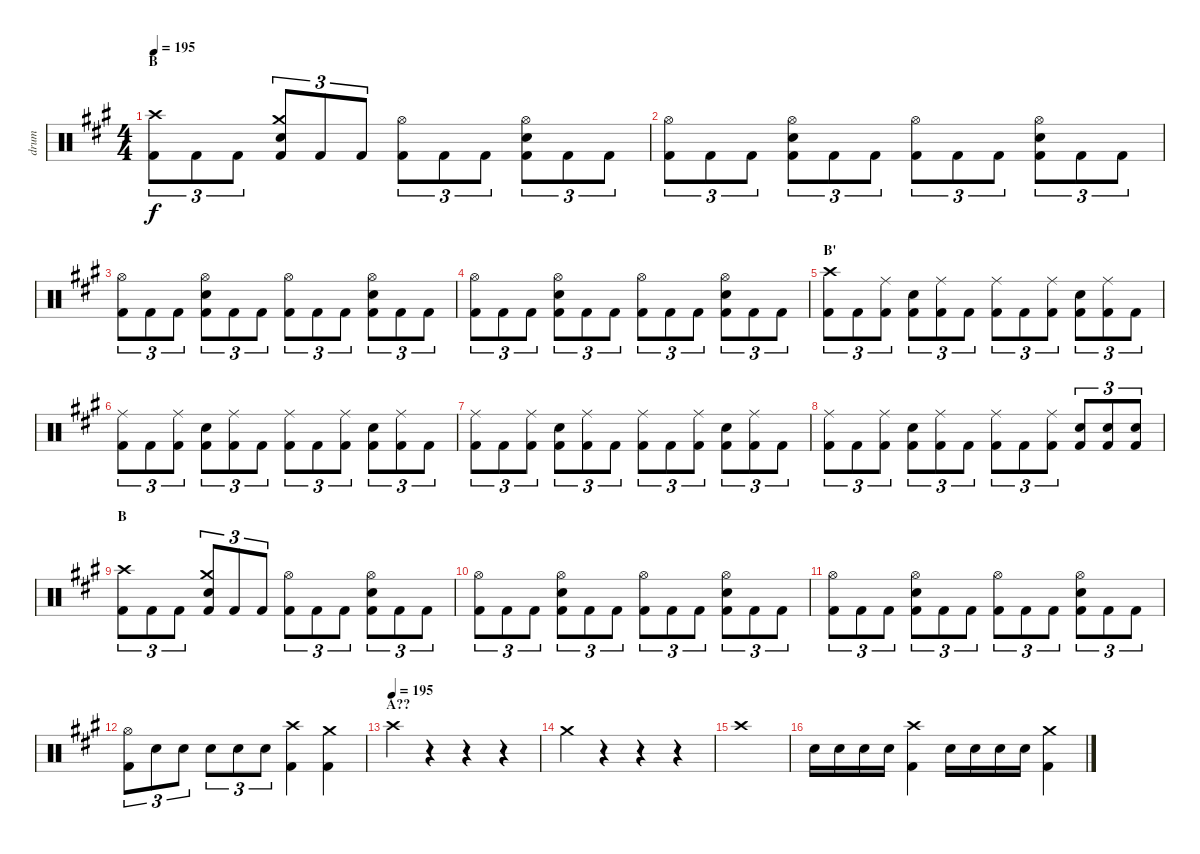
\track ("drum" "drum") {instrument percussion}
\staff {score}
\articulation defaults
\ts (4 4)
\section ("" "B")
\tempo 195
\clef neutral
\ks a
("Crash high (hit)" "Kick (hit) 2").8{tu (3 2) dy f} "Kick (hit) 2".8{tu (3 2)} "Kick (hit) 2".8{tu (3 2)} ("Crash medium (hit)" "Electric Snare (hit)" "Kick (hit) 2").8{tu (3 2)} "Kick (hit) 2".8{tu (3 2)} "Kick (hit) 2".8{tu (3 2)} ("Hi-Hat (open)" "Kick (hit) 2").8{tu (3 2)} "Kick (hit) 2".8{tu (3 2)} "Kick (hit) 2".8{tu (3 2)} ("Hi-Hat (open)" "Electric Snare (hit)" "Kick (hit) 2").8{tu (3 2)} "Kick (hit) 2".8{tu (3 2)} "Kick (hit) 2".8{tu (3 2)} |
("Hi-Hat (open)" "Kick (hit) 2").8{tu (3 2)} "Kick (hit) 2".8{tu (3 2)} "Kick (hit) 2".8{tu (3 2)} ("Hi-Hat (open)" "Electric Snare (hit)" "Kick (hit) 2").8{tu (3 2)} "Kick (hit) 2".8{tu (3 2)} "Kick (hit) 2".8{tu (3 2)} ("Hi-Hat (open)" "Kick (hit) 2").8{tu (3 2)} "Kick (hit) 2".8{tu (3 2)} "Kick (hit) 2".8{tu (3 2)} ("Hi-Hat (open)" "Electric Snare (hit)" "Kick (hit) 2").8{tu (3 2)} "Kick (hit) 2".8{tu (3 2)} "Kick (hit) 2".8{tu (3 2)} |
("Hi-Hat (open)" "Kick (hit) 2").8{tu (3 2)} "Kick (hit) 2".8{tu (3 2)} "Kick (hit) 2".8{tu (3 2)} ("Hi-Hat (open)" "Electric Snare (hit)" "Kick (hit) 2").8{tu (3 2)} "Kick (hit) 2".8{tu (3 2)} "Kick (hit) 2".8{tu (3 2)} ("Hi-Hat (open)" "Kick (hit) 2").8{tu (3 2)} "Kick (hit) 2".8{tu (3 2)} "Kick (hit) 2".8{tu (3 2)} ("Hi-Hat (open)" "Electric Snare (hit)" "Kick (hit) 2").8{tu (3 2)} "Kick (hit) 2".8{tu (3 2)} "Kick (hit) 2".8{tu (3 2)} |
("Hi-Hat (open)" "Kick (hit) 2").8{tu (3 2)} "Kick (hit) 2".8{tu (3 2)} "Kick (hit) 2".8{tu (3 2)} ("Hi-Hat (open)" "Electric Snare (hit)" "Kick (hit) 2").8{tu (3 2)} "Kick (hit) 2".8{tu (3 2)} "Kick (hit) 2".8{tu (3 2)} ("Hi-Hat (open)" "Kick (hit) 2").8{tu (3 2)} "Kick (hit) 2".8{tu (3 2)} "Kick (hit) 2".8{tu (3 2)} ("Hi-Hat (open)" "Electric Snare (hit)" "Kick (hit) 2").8{tu (3 2)} "Kick (hit) 2".8{tu (3 2)} "Kick (hit) 2".8{tu (3 2)} |
\section ("" "B'")
("Crash high (hit)" "Kick (hit) 2").8{tu (3 2)} "Kick (hit) 2".8{tu (3 2)} ("Ride (middle)" "Kick (hit) 2").8{tu (3 2)} ("Electric Snare (hit)" "Kick (hit) 2").8{tu (3 2)} ("Ride (middle)" "Kick (hit) 2").8{tu (3 2)} "Kick (hit) 2".8{tu (3 2)} ("Ride (middle)" "Kick (hit) 2").8{tu (3 2)} "Kick (hit) 2".8{tu (3 2)} ("Ride (middle)" "Kick (hit) 2").8{tu (3 2)} ("Electric Snare (hit)" "Kick (hit) 2").8{tu (3 2)} ("Ride (middle)" "Kick (hit) 2").8{tu (3 2)} "Kick (hit) 2".8{tu (3 2)} |
("Ride (middle)" "Kick (hit) 2").8{tu (3 2)} "Kick (hit) 2".8{tu (3 2)} ("Ride (middle)" "Kick (hit) 2").8{tu (3 2)} ("Electric Snare (hit)" "Kick (hit) 2").8{tu (3 2)} ("Ride (middle)" "Kick (hit) 2").8{tu (3 2)} "Kick (hit) 2".8{tu (3 2)} ("Ride (middle)" "Kick (hit) 2").8{tu (3 2)} "Kick (hit) 2".8{tu (3 2)} ("Ride (middle)" "Kick (hit) 2").8{tu (3 2)} ("Electric Snare (hit)" "Kick (hit) 2").8{tu (3 2)} ("Ride (middle)" "Kick (hit) 2").8{tu (3 2)} "Kick (hit) 2".8{tu (3 2)} |
("Ride (middle)" "Kick (hit) 2").8{tu (3 2)} "Kick (hit) 2".8{tu (3 2)} ("Ride (middle)" "Kick (hit) 2").8{tu (3 2)} ("Electric Snare (hit)" "Kick (hit) 2").8{tu (3 2)} ("Ride (middle)" "Kick (hit) 2").8{tu (3 2)} "Kick (hit) 2".8{tu (3 2)} ("Ride (middle)" "Kick (hit) 2").8{tu (3 2)} "Kick (hit) 2".8{tu (3 2)} ("Ride (middle)" "Kick (hit) 2").8{tu (3 2)} ("Electric Snare (hit)" "Kick (hit) 2").8{tu (3 2)} ("Ride (middle)" "Kick (hit) 2").8{tu (3 2)} "Kick (hit) 2".8{tu (3 2)} |
("Ride (middle)" "Kick (hit) 2").8{tu (3 2)} "Kick (hit) 2".8{tu (3 2)} ("Ride (middle)" "Kick (hit) 2").8{tu (3 2)} ("Electric Snare (hit)" "Kick (hit) 2").8{tu (3 2)} ("Ride (middle)" "Kick (hit) 2").8{tu (3 2)} "Kick (hit) 2".8{tu (3 2)} ("Ride (middle)" "Kick (hit) 2").8{tu (3 2)} "Kick (hit) 2".8{tu (3 2)} ("Ride (middle)" "Kick (hit) 2").8{tu (3 2)} ("Electric Snare (hit)" "Kick (hit) 2").8{tu (3 2)} ("Electric Snare (hit)" "Kick (hit) 2").8{tu (3 2)} ("Electric Snare (hit)" "Kick (hit) 2").8{tu (3 2)} |
\section ("" "B")
("Crash high (hit)" "Kick (hit) 2").8{tu (3 2)} "Kick (hit) 2".8{tu (3 2)} "Kick (hit) 2".8{tu (3 2)} ("Crash medium (hit)" "Electric Snare (hit)" "Kick (hit) 2").8{tu (3 2)} "Kick (hit) 2".8{tu (3 2)} "Kick (hit) 2".8{tu (3 2)} ("Hi-Hat (open)" "Kick (hit) 2").8{tu (3 2)} "Kick (hit) 2".8{tu (3 2)} "Kick (hit) 2".8{tu (3 2)} ("Hi-Hat (open)" "Electric Snare (hit)" "Kick (hit) 2").8{tu (3 2)} "Kick (hit) 2".8{tu (3 2)} "Kick (hit) 2".8{tu (3 2)} |
("Hi-Hat (open)" "Kick (hit) 2").8{tu (3 2)} "Kick (hit) 2".8{tu (3 2)} "Kick (hit) 2".8{tu (3 2)} ("Hi-Hat (open)" "Electric Snare (hit)" "Kick (hit) 2").8{tu (3 2)} "Kick (hit) 2".8{tu (3 2)} "Kick (hit) 2".8{tu (3 2)} ("Hi-Hat (open)" "Kick (hit) 2").8{tu (3 2)} "Kick (hit) 2".8{tu (3 2)} "Kick (hit) 2".8{tu (3 2)} ("Hi-Hat (open)" "Electric Snare (hit)" "Kick (hit) 2").8{tu (3 2)} "Kick (hit) 2".8{tu (3 2)} "Kick (hit) 2".8{tu (3 2)} |
("Hi-Hat (open)" "Kick (hit) 2").8{tu (3 2)} "Kick (hit) 2".8{tu (3 2)} "Kick (hit) 2".8{tu (3 2)} ("Hi-Hat (open)" "Electric Snare (hit)" "Kick (hit) 2").8{tu (3 2)} "Kick (hit) 2".8{tu (3 2)} "Kick (hit) 2".8{tu (3 2)} ("Hi-Hat (open)" "Kick (hit) 2").8{tu (3 2)} "Kick (hit) 2".8{tu (3 2)} "Kick (hit) 2".8{tu (3 2)} ("Hi-Hat (open)" "Electric Snare (hit)" "Kick (hit) 2").8{tu (3 2)} "Kick (hit) 2".8{tu (3 2)} "Kick (hit) 2".8{tu (3 2)} |
("Hi-Hat (open)" "Kick (hit) 2").8{tu (3 2)} "Electric Snare (hit)".8{tu (3 2)} "Electric Snare (hit)".8{tu (3 2)} "Electric Snare (hit)".8{tu (3 2)} "Electric Snare (hit)".8{tu (3 2)} "Electric Snare (hit)".8{tu (3 2)} ("Crash high (hit)" "Kick (hit) 2").4 ("Crash medium (hit)" "Kick (hit) 2").4 |
\section ("" "A??")
\tempo (195)
"Crash high (hit)".4 r.4 r.4 r.4 |
"Crash medium (hit)".4 r.4 r.4 r.4 |
"Crash high (hit)".1 |
"Electric Snare (hit)".16 "Electric Snare (hit)".16 "Electric Snare (hit)".16 "Electric Snare (hit)".16 ("Crash high (hit)" "Kick (hit) 2").4 "Electric Snare (hit)".16 "Electric Snare (hit)".16 "Electric Snare (hit)".16 "Electric Snare (hit)".16 ("Crash medium (hit)" "Kick (hit) 2").4
